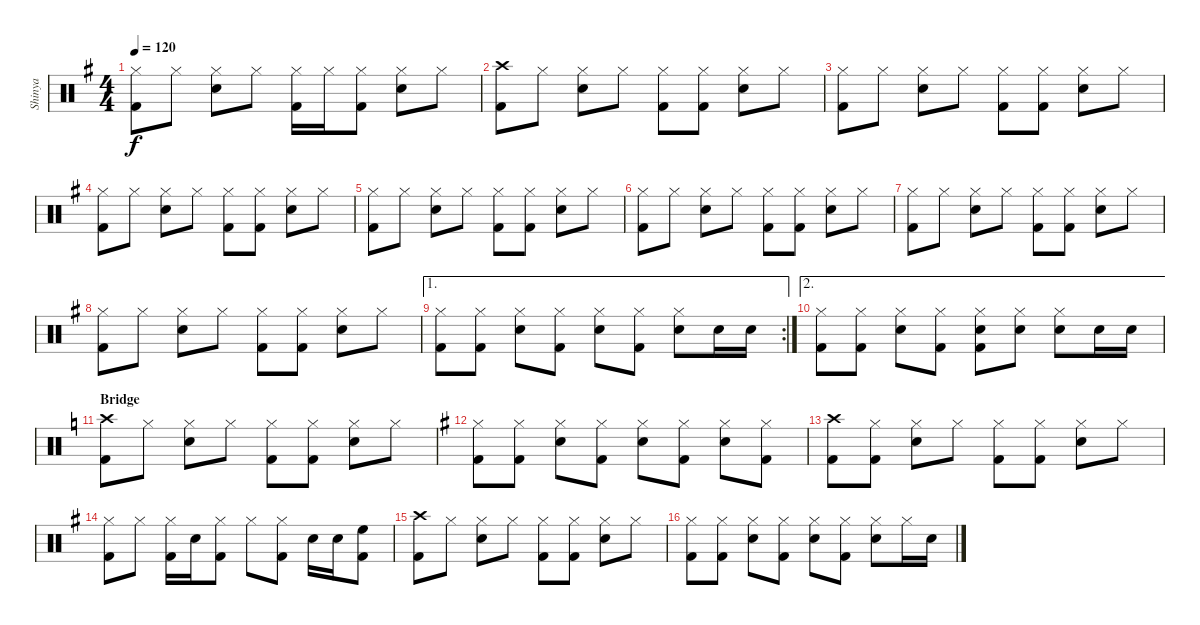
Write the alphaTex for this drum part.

\track ("Shinya" "Shinya") {instrument percussion}
\staff {score}
\articulation defaults
\ts (4 4)
\tempo 120
\clef neutral
\ks g
("Hi-Hat (closed)" "Kick (hit) 2").8{dy f} "Hi-Hat (closed)".8 ("Hi-Hat (closed)" "Snare (hit) 2").8 "Hi-Hat (closed)".8 ("Hi-Hat (closed)" "Kick (hit) 2").16 "Hi-Hat (closed)".16 ("Hi-Hat (closed)" "Kick (hit) 2").8 ("Hi-Hat (closed)" "Snare (hit) 2").8 "Hi-Hat (closed)".8 |
("Crash high (hit)" "Kick (hit) 2").8 "Hi-Hat (closed)".8 ("Hi-Hat (closed)" "Snare (hit) 2").8 "Hi-Hat (closed)".8 ("Hi-Hat (closed)" "Kick (hit) 2").8 ("Hi-Hat (closed)" "Kick (hit) 2").8 ("Hi-Hat (closed)" "Snare (hit) 2").8 "Hi-Hat (closed)".8 |
("Hi-Hat (closed)" "Kick (hit) 2").8 "Hi-Hat (closed)".8 ("Hi-Hat (closed)" "Snare (hit) 2").8 "Hi-Hat (closed)".8 ("Hi-Hat (closed)" "Kick (hit) 2").8 ("Hi-Hat (closed)" "Kick (hit) 2").8 ("Hi-Hat (closed)" "Snare (hit) 2").8 "Hi-Hat (closed)".8 |
("Hi-Hat (closed)" "Kick (hit) 2").8 "Hi-Hat (closed)".8 ("Hi-Hat (closed)" "Snare (hit) 2").8 "Hi-Hat (closed)".8 ("Hi-Hat (closed)" "Kick (hit) 2").8 ("Hi-Hat (closed)" "Kick (hit) 2").8 ("Hi-Hat (closed)" "Snare (hit) 2").8 "Hi-Hat (closed)".8 |
("Hi-Hat (closed)" "Kick (hit) 2").8 "Hi-Hat (closed)".8 ("Hi-Hat (closed)" "Snare (hit) 2").8 "Hi-Hat (closed)".8 ("Hi-Hat (closed)" "Kick (hit) 2").8 ("Hi-Hat (closed)" "Kick (hit) 2").8 ("Hi-Hat (closed)" "Snare (hit) 2").8 "Hi-Hat (closed)".8 |
("Hi-Hat (closed)" "Kick (hit) 2").8 "Hi-Hat (closed)".8 ("Hi-Hat (closed)" "Snare (hit) 2").8 "Hi-Hat (closed)".8 ("Hi-Hat (closed)" "Kick (hit) 2").8 ("Hi-Hat (closed)" "Kick (hit) 2").8 ("Hi-Hat (closed)" "Snare (hit) 2").8 "Hi-Hat (closed)".8 |
("Hi-Hat (closed)" "Kick (hit) 2").8 "Hi-Hat (closed)".8 ("Hi-Hat (closed)" "Snare (hit) 2").8 "Hi-Hat (closed)".8 ("Hi-Hat (closed)" "Kick (hit) 2").8 ("Hi-Hat (closed)" "Kick (hit) 2").8 ("Hi-Hat (closed)" "Snare (hit) 2").8 "Hi-Hat (closed)".8 |
("Hi-Hat (closed)" "Kick (hit) 2").8 "Hi-Hat (closed)".8 ("Hi-Hat (closed)" "Snare (hit) 2").8 "Hi-Hat (closed)".8 ("Hi-Hat (closed)" "Kick (hit) 2").8 ("Hi-Hat (closed)" "Kick (hit) 2").8 ("Hi-Hat (closed)" "Snare (hit) 2").8 "Hi-Hat (closed)".8 |
\ae 1
\rc 2
("Hi-Hat (closed)" "Kick (hit) 2").8 ("Hi-Hat (closed)" "Kick (hit) 2").8 ("Hi-Hat (closed)" "Snare (hit) 2").8 ("Hi-Hat (closed)" "Kick (hit) 2").8 ("Hi-Hat (closed)" "Snare (hit) 2").8 ("Hi-Hat (closed)" "Kick (hit) 2").8 ("Hi-Hat (closed)" "Snare (hit) 2").8 "Snare (hit) 2".16 "Snare (hit) 2".16 |
\ae 2
("Hi-Hat (closed)" "Kick (hit) 2").8 ("Hi-Hat (closed)" "Kick (hit) 2").8 ("Hi-Hat (closed)" "Snare (hit) 2").8 ("Hi-Hat (closed)" "Kick (hit) 2").8 ("Hi-Hat (closed)" "Snare (hit) 2" "Kick (hit) 2").8 ("Hi-Hat (closed)" "Snare (hit) 2").8 ("Hi-Hat (closed)" "Snare (hit) 2").8 "Snare (hit) 2".16 "Snare (hit) 2".16 |
\section ("" "Bridge")
\ks c
("Crash high (hit)" "Kick (hit) 2").8 "Hi-Hat (closed)".8 ("Hi-Hat (closed)" "Snare (hit) 2").8 "Hi-Hat (closed)".8 ("Hi-Hat (closed)" "Kick (hit) 2").8 ("Hi-Hat (closed)" "Kick (hit) 2").8 ("Hi-Hat (closed)" "Snare (hit) 2").8 "Hi-Hat (closed)".8 |
\ks g
("Hi-Hat (closed)" "Kick (hit) 2").8 ("Hi-Hat (closed)" "Kick (hit) 2").8 ("Hi-Hat (closed)" "Snare (hit) 2").8 ("Hi-Hat (closed)" "Kick (hit) 2").8 ("Hi-Hat (closed)" "Snare (hit) 2").8 ("Hi-Hat (closed)" "Kick (hit) 2").8 ("Hi-Hat (closed)" "Snare (hit) 2").8 ("Hi-Hat (closed)" "Kick (hit) 2").8 |
("Crash high (hit)" "Kick (hit) 2").8 ("Hi-Hat (closed)" "Kick (hit) 2").8 ("Hi-Hat (closed)" "Snare (hit) 2").8 "Hi-Hat (closed)".8 ("Hi-Hat (closed)" "Kick (hit) 2").8 ("Hi-Hat (closed)" "Kick (hit) 2").8 ("Hi-Hat (closed)" "Snare (hit) 2").8 "Hi-Hat (closed)".8 |
("Hi-Hat (closed)" "Kick (hit) 2").8 "Hi-Hat (closed)".8 ("Hi-Hat (closed)" "Kick (hit) 2").16 "Snare (hit) 2".16 ("Hi-Hat (closed)" "Kick (hit) 2").8 "Hi-Hat (closed)".8 ("Hi-Hat (closed)" "Kick (hit) 2").8 "Snare (hit) 2".16 "Snare (hit) 2".16 ("High Floor Tom (hit)" "Kick (hit) 2").8 |
("Crash high (hit)" "Kick (hit) 2").8 "Hi-Hat (closed)".8 ("Hi-Hat (closed)" "Snare (hit) 2").8 "Hi-Hat (closed)".8 ("Hi-Hat (closed)" "Kick (hit) 2").8 ("Hi-Hat (closed)" "Kick (hit) 2").8 ("Hi-Hat (closed)" "Snare (hit) 2").8 "Hi-Hat (closed)".8 |
("Hi-Hat (closed)" "Kick (hit) 2").8 ("Hi-Hat (closed)" "Kick (hit) 2").8 ("Hi-Hat (closed)" "Snare (hit) 2").8 ("Hi-Hat (closed)" "Kick (hit) 2").8 ("Hi-Hat (closed)" "Snare (hit) 2").8 ("Hi-Hat (closed)" "Kick (hit) 2").8 ("Hi-Hat (closed)" "Snare (hit) 2").8 "Hi-Hat (closed)".16 "Snare (hit) 2".16
